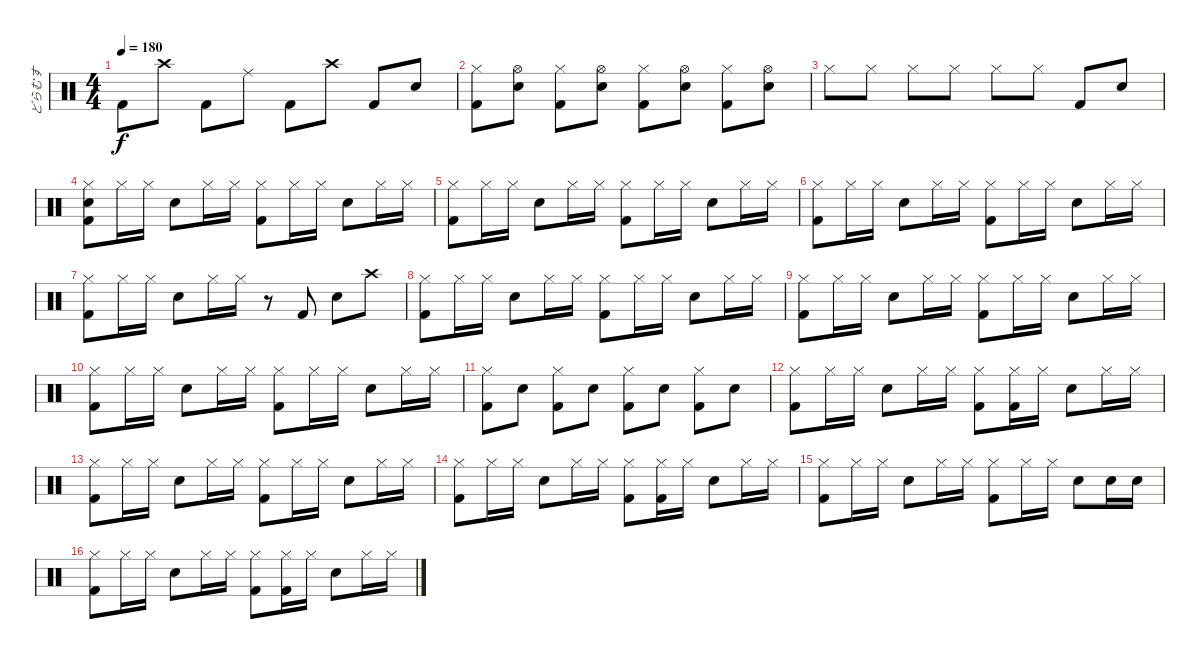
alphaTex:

\track ("どらむす" "どらむす") {instrument percussion}
\staff {score}
\articulation defaults
\ts (4 4)
\tempo 180
\clef neutral
\ks c "Kick (hit) 2".8{dy f} "Crash high (hit)".8 "Kick (hit) 2".8 "Ride (middle)".8 "Kick (hit) 2".8 "Crash high (hit)".8 "Kick (hit) 2".8 "Electric Snare (hit)".8
|
("Hi-Hat (closed)" "Kick (hit) 2").8 ("Hi-Hat (open)" "Electric Snare (hit)").8 ("Hi-Hat (closed)" "Kick (hit) 2").8 ("Hi-Hat (open)" "Electric Snare (hit)").8 ("Hi-Hat (closed)" "Kick (hit) 2").8 ("Hi-Hat (open)" "Electric Snare (hit)").8 ("Hi-Hat (closed)" "Kick (hit) 2").8 ("Hi-Hat (open)" "Electric Snare (hit)").8 |
"Hi-Hat (closed)".8 "Hi-Hat (closed)".8 "Hi-Hat (closed)".8 "Hi-Hat (closed)".8 "Hi-Hat (closed)".8 "Hi-Hat (closed)".8 "Kick (hit) 2".8 "Electric Snare (hit)".8 |
("Hi-Hat (closed)" "Snare (hit)" "Kick (hit) 2").8 "Hi-Hat (closed)".16 "Hi-Hat (closed)".16 "Electric Snare (hit)".8 "Hi-Hat (closed)".16 "Hi-Hat (closed)".16 ("Hi-Hat (closed)" "Kick (hit) 2").8 "Hi-Hat (closed)".16 "Hi-Hat (closed)".16 "Electric Snare (hit)".8 "Hi-Hat (closed)".16 "Hi-Hat (closed)".16 |
("Hi-Hat (closed)" "Kick (hit) 2").8 "Hi-Hat (closed)".16 "Hi-Hat (closed)".16 "Electric Snare (hit)".8 "Hi-Hat (closed)".16 "Hi-Hat (closed)".16 ("Hi-Hat (closed)" "Kick (hit) 2").8 "Hi-Hat (closed)".16 "Hi-Hat (closed)".16 "Electric Snare (hit)".8 "Hi-Hat (closed)".16 "Hi-Hat (closed)".16 |
("Hi-Hat (closed)" "Kick (hit) 2").8 "Hi-Hat (closed)".16 "Hi-Hat (closed)".16 "Electric Snare (hit)".8 "Hi-Hat (closed)".16 "Hi-Hat (closed)".16 ("Hi-Hat (closed)" "Kick (hit) 2").8 "Hi-Hat (closed)".16 "Hi-Hat (closed)".16 "Electric Snare (hit)".8 "Hi-Hat (closed)".16 "Hi-Hat (closed)".16 |
("Hi-Hat (closed)" "Kick (hit) 2").8 "Hi-Hat (closed)".16 "Hi-Hat (closed)".16 "Electric Snare (hit)".8 "Hi-Hat (closed)".16 "Hi-Hat (closed)".16 r.8 "Kick (hit) 2".8 "Electric Snare (hit)".8 "Crash high (hit)".8 |
("Hi-Hat (closed)" "Kick (hit) 2").8 "Hi-Hat (closed)".16 "Hi-Hat (closed)".16 "Electric Snare (hit)".8 "Hi-Hat (closed)".16 "Hi-Hat (closed)".16 ("Hi-Hat (closed)" "Kick (hit) 2").8 "Hi-Hat (closed)".16 "Hi-Hat (closed)".16 "Electric Snare (hit)".8 "Hi-Hat (closed)".16 "Hi-Hat (closed)".16 |
("Hi-Hat (closed)" "Kick (hit) 2").8 "Hi-Hat (closed)".16 "Hi-Hat (closed)".16 "Electric Snare (hit)".8 "Hi-Hat (closed)".16 "Hi-Hat (closed)".16 ("Hi-Hat (closed)" "Kick (hit) 2").8 "Hi-Hat (closed)".16 "Hi-Hat (closed)".16 "Electric Snare (hit)".8 "Hi-Hat (closed)".16 "Hi-Hat (closed)".16 |
("Hi-Hat (closed)" "Kick (hit) 2").8 "Hi-Hat (closed)".16 "Hi-Hat (closed)".16 "Electric Snare (hit)".8 "Hi-Hat (closed)".16 "Hi-Hat (closed)".16 ("Hi-Hat (closed)" "Kick (hit) 2").8 "Hi-Hat (closed)".16 "Hi-Hat (closed)".16 "Electric Snare (hit)".8 "Hi-Hat (closed)".16 "Hi-Hat (closed)".16 |
("Hi-Hat (closed)" "Kick (hit) 2").8 "Electric Snare (hit)".8 ("Hi-Hat (closed)" "Kick (hit) 2").8 "Electric Snare (hit)".8 ("Hi-Hat (closed)" "Kick (hit) 2").8 "Electric Snare (hit)".8 ("Hi-Hat (closed)" "Kick (hit) 2").8 "Electric Snare (hit)".8 |
("Hi-Hat (closed)" "Kick (hit) 2").8 "Hi-Hat (closed)".16 "Hi-Hat (closed)".16 "Electric Snare (hit)".8 "Hi-Hat (closed)".16 "Hi-Hat (closed)".16 ("Hi-Hat (closed)" "Kick (hit) 2").8 ("Hi-Hat (closed)" "Kick (hit) 2").16 "Hi-Hat (closed)".16 "Electric Snare (hit)".8 "Hi-Hat (closed)".16 "Hi-Hat (closed)".16 |
("Hi-Hat (closed)" "Kick (hit) 2").8 "Hi-Hat (closed)".16 "Hi-Hat (closed)".16 "Electric Snare (hit)".8 "Hi-Hat (closed)".16 "Hi-Hat (closed)".16 ("Hi-Hat (closed)" "Kick (hit) 2").8 "Hi-Hat (closed)".16 "Hi-Hat (closed)".16 "Electric Snare (hit)".8 "Hi-Hat (closed)".16 "Hi-Hat (closed)".16 |
("Hi-Hat (closed)" "Kick (hit) 2").8 "Hi-Hat (closed)".16 "Hi-Hat (closed)".16 "Electric Snare (hit)".8 "Hi-Hat (closed)".16 "Hi-Hat (closed)".16 ("Hi-Hat (closed)" "Kick (hit) 2").8 ("Hi-Hat (closed)" "Kick (hit) 2").16 "Hi-Hat (closed)".16 "Electric Snare (hit)".8 "Hi-Hat (closed)".16 "Hi-Hat (closed)".16 |
("Hi-Hat (closed)" "Kick (hit) 2").8 "Hi-Hat (closed)".16 "Hi-Hat (closed)".16 "Electric Snare (hit)".8 "Hi-Hat (closed)".16 "Hi-Hat (closed)".16 ("Hi-Hat (closed)" "Kick (hit) 2").8 "Hi-Hat (closed)".16 "Hi-Hat (closed)".16 "Electric Snare (hit)".8 "Electric Snare (hit)".16 "Electric Snare (hit)".16 |
("Hi-Hat (closed)" "Kick (hit) 2").8 "Hi-Hat (closed)".16 "Hi-Hat (closed)".16 "Electric Snare (hit)".8 "Hi-Hat (closed)".16 "Hi-Hat (closed)".16 ("Hi-Hat (closed)" "Kick (hit) 2").8 ("Hi-Hat (closed)" "Kick (hit) 2").16 "Hi-Hat (closed)".16 "Electric Snare (hit)".8 "Hi-Hat (closed)".16 "Hi-Hat (closed)".16
